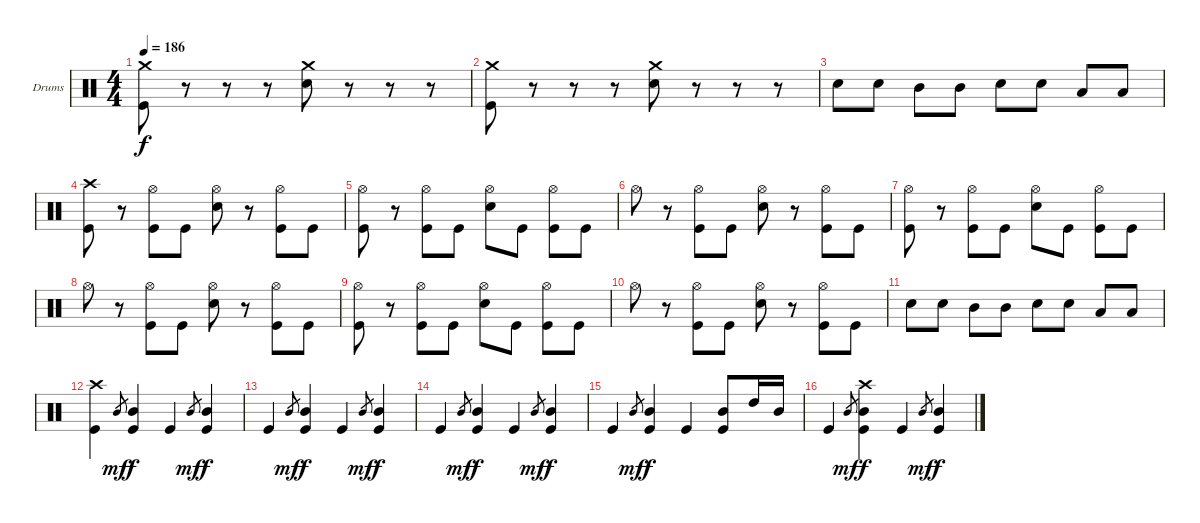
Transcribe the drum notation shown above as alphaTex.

\bracketExtendMode groupsimilarinstruments
\firstSystemTrackNameOrientation horizontal
\otherSystemsTrackNameOrientation horizontal
\track ("Drumkit" "Drums") {instrument percussion}
\staff {score}
\articulation defaults
\ts (4 4)
\tempo 186
\clef neutral
\scale
0.333333
\ks c
("Crash medium (hit)" "Kick (hit)").8{dy f} r.8 r.8 r.8 ("Crash medium (hit)" "Snare (hit) 2").8 r.8 r.8 r.8 |
\scale
0.333333 ("Crash medium (hit)" "Kick (hit)").8 r.8 r.8 r.8 ("Crash medium (hit)" "Snare (hit) 2").8 r.8 r.8 r.8 |
\scale
0.333333 "Snare (hit) 2".8 "Snare (hit) 2".8 "Mid Tom (hit)".8 "Mid Tom (hit)".8 "Snare (hit) 2".8 "Snare (hit) 2".8 "Low Tom (hit)".8 "Low Tom (hit)".8 |
\scale
0.333333 ("Crash high (hit)" "Kick (hit)").8 r.8 ("Hi-Hat (open)" "Kick (hit)").8 "Kick (hit)".8 ("Hi-Hat (open)" "Snare (hit) 2").8 r.8 ("Hi-Hat (open)" "Kick (hit)").8 "Kick (hit)".8 |
\scale
0.333333 ("Hi-Hat (open)" "Kick (hit)").8 r.8 ("Hi-Hat (open)" "Kick (hit)").8 "Kick (hit)".8 ("Hi-Hat (open)" "Snare (hit) 2").8 "Kick (hit)".8 ("Hi-Hat (open)" "Kick (hit)").8 "Kick (hit)".8 |
\scale
0.333333 "Hi-Hat (open)".8 r.8 ("Hi-Hat (open)" "Kick (hit)").8 "Kick (hit)".8 ("Hi-Hat (open)" "Snare (hit) 2").8 r.8 ("Hi-Hat (open)" "Kick (hit)").8 "Kick (hit)".8 |
\scale
0.333333 ("Hi-Hat (open)" "Kick (hit)").8 r.8 ("Hi-Hat (open)" "Kick (hit)").8 "Kick (hit)".8 ("Hi-Hat (open)" "Snare (hit) 2").8 "Kick (hit)".8 ("Hi-Hat (open)" "Kick (hit)").8 "Kick (hit)".8 |
\scale
0.333333 "Hi-Hat (open)".8 r.8 ("Hi-Hat (open)" "Kick (hit)").8 "Kick (hit)".8 ("Hi-Hat (open)" "Snare (hit) 2").8 r.8 ("Hi-Hat (open)" "Kick (hit)").8 "Kick (hit)".8 |
\scale
0.333333 ("Hi-Hat (open)" "Kick (hit)").8 r.8 ("Hi-Hat (open)" "Kick (hit)").8 "Kick (hit)".8 ("Hi-Hat (open)" "Snare (hit) 2").8 "Kick (hit)".8 ("Hi-Hat (open)" "Kick (hit)").8 "Kick (hit)".8 |
\scale
0.333333 "Hi-Hat (open)".8 r.8 ("Hi-Hat (open)" "Kick (hit)").8 "Kick (hit)".8 ("Hi-Hat (open)" "Snare (hit) 2").8 r.8 ("Hi-Hat (open)" "Kick (hit)").8 "Kick (hit)".8 |
\scale
0.333333 "Snare (hit) 2".8 "Snare (hit) 2".8 "Mid Tom (hit)".8 "Mid Tom (hit)".8 "Snare (hit) 2".8 "Snare (hit) 2".8 "Low Tom (hit)".8 "Low Tom (hit)".8 |
\scale
0.333333 ("Crash high (hit)" "Kick (hit)").4 "Mid Tom (hit)".8{gr dy mf} ("Mid Tom (hit)" "Kick (hit)").4{dy f} "Kick (hit)".4 "Mid Tom (hit)".8{gr dy mf} ("Mid Tom (hit)" "Kick (hit)").4{dy f} |
\scale
0.333333 "Kick (hit)".4 "Mid Tom (hit)".8{gr dy mf} ("Mid Tom (hit)" "Kick (hit)").4{dy f} "Kick (hit)".4 "Mid Tom (hit)".8{gr dy mf} ("Mid Tom (hit)" "Kick (hit)").4{dy f} |
\scale
0.333333 "Kick (hit)".4 "Mid Tom (hit)".8{gr dy mf} ("Mid Tom (hit)" "Kick (hit)").4{dy f} "Kick (hit)".4 "Mid Tom (hit)".8{gr dy mf} ("Mid Tom (hit)" "Kick (hit)").4{dy f} |
\scale
0.333333 "Kick (hit)".4 "Mid Tom (hit)".8{gr dy mf} ("Mid Tom (hit)" "Kick (hit)").4{dy f} "Kick (hit)".4 ("Mid Tom (hit)" "Kick (hit)").8 "High Tom (hit)".16 "Mid Tom (hit)".16 |
\scale
0.333333 "Kick (hit)".4 "Mid Tom (hit)".8{gr dy mf} ("Crash high (hit)" "Mid Tom (hit)" "Kick (hit)").4{dy f} "Kick (hit)".4 "Mid Tom (hit)".8{gr dy mf} ("Mid Tom (hit)" "Kick (hit)").4{dy f}
